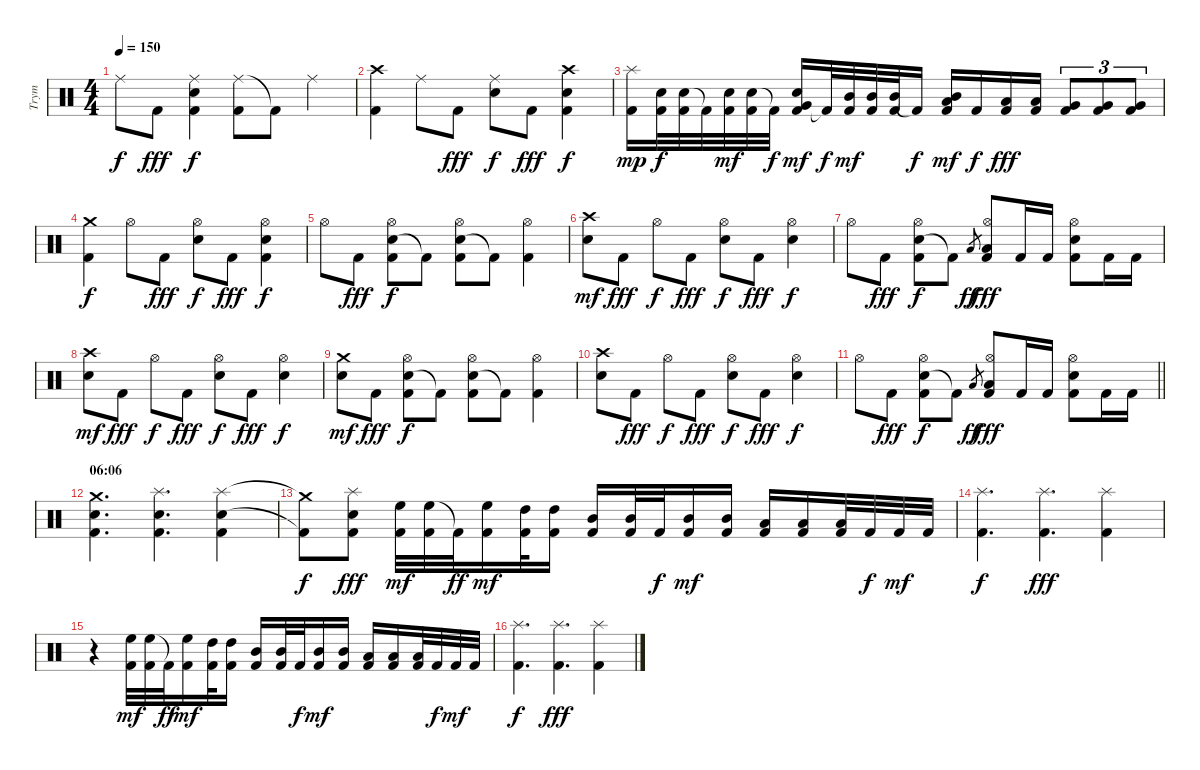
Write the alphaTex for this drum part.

\track ("Trym" "Trym") {instrument percussion}
\staff {score}
\articulation defaults
\ts (4 4)
\tempo 150
\clef neutral
\ks c "Ride (middle)".8{dy f} "Kick (hit) 2".8{dy fff}
("Snare (hit) 2" "Ride (middle)" "Kick (hit) 2").4{dy f} ("Ride (middle)" "Kick (hit) 2").8 "Kick (hit) 2"{t}.8 "Ride (middle)".4 |
("Crash high (hit)" "Kick (hit) 2").4 "Ride (middle)".8 "Kick (hit) 2".8{dy fff} ("Snare (hit) 2" "Ride (middle)").8{dy f} "Kick (hit) 2".8{dy fff} ("Snare (hit) 2" "Crash high (hit)" "Kick (hit) 2").4{dy f} |
("Splash (hit)" "Kick (hit) 2").16{dy mp} ("Snare (hit) 2" "Kick (hit) 2").32{dy f} ("Snare (hit) 2" "Kick (hit) 2").32 "Kick (hit) 2"{t}.32 ("Snare (hit) 2" "Kick (hit) 2").32{dy mf} ("Snare (hit) 2" "Kick (hit) 2").32 "Kick (hit) 2"{t}.32{dy f} ("Very Low Tom (hit)" "Snare (hit) 2" "Kick (hit) 2").16{dy mf} "Kick (hit) 2"{t}.32{dy f} ("Mid Tom (hit)" "Kick (hit) 2").32{dy mf} ("Mid Tom (hit)" "Kick (hit) 2").32 ("Mid Tom (hit)" "Kick (hit) 2").32 "Kick (hit) 2"{t}.16{dy f} ("Low Floor Tom (hit)" "Mid Tom (hit)" "Kick (hit) 2").16{dy mf} "Kick (hit) 2".16{dy f} ("Low Floor Tom (hit)" "Kick (hit) 2").16{dy fff} ("Low Floor Tom (hit)" "Kick (hit) 2").16 ("Very Low Tom (hit)" "Kick (hit) 2").8{tu (3 2)} ("Very Low Tom (hit)" "Kick (hit) 2").8{tu (3 2)} ("Very Low Tom (hit)" "Kick (hit) 2").8{tu (3 2)} |
("Crash medium (hit)" "Kick (hit) 2").4{dy f} "Hi-Hat (open)".8 "Kick (hit) 2".8{dy fff} ("Snare (hit) 2" "Hi-Hat (open)").8{dy f} "Kick (hit) 2".8{dy fff} ("Snare (hit) 2" "Hi-Hat (open)" "Kick (hit) 2").4{dy f} |
"Hi-Hat (open)".8 "Kick (hit) 2".8{dy fff} ("Snare (hit) 2" "Hi-Hat (open)" "Kick (hit) 2").8{dy f} "Kick (hit) 2"{t}.8 ("Snare (hit) 2" "Hi-Hat (open)" "Kick (hit) 2").8 "Kick (hit) 2"{t}.8 ("Hi-Hat (open)" "Kick (hit) 2").4 |
("Crash high (hit)" "Snare (hit) 2").8{dy mf} "Kick (hit) 2".8{dy fff} "Hi-Hat (open)".8{dy f} "Kick (hit) 2".8{dy fff} ("Snare (hit) 2" "Hi-Hat (open)").8{dy f} "Kick (hit) 2".8{dy fff} ("Snare (hit) 2" "Hi-Hat (open)").4{dy f} |
"Hi-Hat (open)".8 "Kick (hit) 2".8{dy fff} ("Snare (hit) 2" "Hi-Hat (open)" "Kick (hit) 2").8{dy f} "Kick (hit) 2"{t}.8 "Low Tom (hit)".8{gr dy ff} ("Low Tom (hit)" "Hi-Hat (open)" "Kick (hit) 2").8{dy fff} "Kick (hit) 2".16 "Kick (hit) 2".16 ("Snare (hit) 2" "Hi-Hat (open)" "Kick (hit) 2").8 "Kick (hit) 2".16 "Kick (hit) 2".16 |
("Crash high (hit)" "Snare (hit) 2").8{dy mf} "Kick (hit) 2".8{dy fff} "Hi-Hat (open)".8{dy f} "Kick (hit) 2".8{dy fff} ("Snare (hit) 2" "Hi-Hat (open)").8{dy f} "Kick (hit) 2".8{dy fff} ("Snare (hit) 2" "Hi-Hat (open)").4{dy f} |
("Crash medium (hit)" "Snare (hit) 2").8{dy mf} "Kick (hit) 2".8{dy fff} ("Snare (hit) 2" "Hi-Hat (open)" "Kick (hit) 2").8{dy f} "Kick (hit) 2"{t}.8 ("Snare (hit) 2" "Hi-Hat (open)" "Kick (hit) 2").8 "Kick (hit) 2"{t}.8 ("Hi-Hat (open)" "Kick (hit) 2").4 |
("Crash high (hit)" "Snare (hit) 2").8 "Kick (hit) 2".8{dy fff} "Hi-Hat (open)".8{dy f} "Kick (hit) 2".8{dy fff} ("Snare (hit) 2" "Hi-Hat (open)").8{dy f} "Kick (hit) 2".8{dy fff} ("Snare (hit) 2" "Hi-Hat (open)").4{dy f} |
\barLineRight lightlight "Hi-Hat (open)".8 "Kick (hit) 2".8{dy fff}
("Snare (hit) 2" "Hi-Hat (open)" "Kick (hit) 2").8{dy f} "Kick (hit) 2"{t}.8 "Low Tom (hit)".8{gr dy ff} ("Low Tom (hit)" "Hi-Hat (open)" "Kick (hit) 2").8{dy fff} "Kick (hit) 2".16 "Kick (hit) 2".16 ("Snare (hit) 2" "Hi-Hat (open)" "Kick (hit) 2").8 "Kick (hit) 2".16 "Kick (hit) 2".16 |
\section ("" "06:06")
("Crash medium (hit)" "Snare (hit) 2" "Kick (hit) 2").4{d} ("Splash (hit)" "Snare (hit) 2" "Kick (hit) 2").4{d} ("Splash (hit)" "Snare (hit) 2" "Kick (hit) 2").4 |
("Crash medium (hit)"{t} "Kick (hit) 2"{t}).8{dy f} ("Splash (hit)" "Snare (hit) 2" "Kick (hit) 2").8{dy fff} ("High Floor Tom (hit)" "Kick (hit) 2").32{dy mf} ("High Floor Tom (hit)" "Kick (hit) 2").32 "Kick (hit) 2"{t}.32{dy ff} ("High Floor Tom (hit)" "Kick (hit) 2").16{dy mf} ("High Tom (hit)" "Kick (hit) 2").32 ("High Tom (hit)" "Kick (hit) 2").16 ("Mid Tom (hit)" "Kick (hit) 2").16 ("Mid Tom (hit)" "Kick (hit) 2").32 "Kick (hit) 2".32{dy f} ("Mid Tom (hit)" "Kick (hit) 2").16{dy mf} ("Mid Tom (hit)" "Kick (hit) 2").16 ("Low Tom (hit)" "Kick (hit) 2").16 ("Low Tom (hit)" "Kick (hit) 2").16 ("Low Tom (hit)" "Kick (hit) 2").32 "Kick (hit) 2".32{dy f} "Kick (hit) 2".32{dy mf} "Kick (hit) 2".32 |
("Splash (hit)" "Kick (hit) 2").4{d dy f} ("Splash (hit)" "Kick (hit) 2").4{d dy fff} ("Splash (hit)" "Kick (hit) 2").4 |
r.4 ("High Floor Tom (hit)" "Kick (hit) 2").32{dy mf} ("High Floor Tom (hit)" "Kick (hit) 2").32 "Kick (hit) 2"{t}.32{dy ff} ("High Floor Tom (hit)" "Kick (hit) 2").16{dy mf} ("High Tom (hit)" "Kick (hit) 2").32 ("High Tom (hit)" "Kick (hit) 2").16 ("Mid Tom (hit)" "Kick (hit) 2").16 ("Mid Tom (hit)" "Kick (hit) 2").32 "Kick (hit) 2".32{dy f} ("Mid Tom (hit)" "Kick (hit) 2").16{dy mf} ("Mid Tom (hit)" "Kick (hit) 2").16 ("Low Tom (hit)" "Kick (hit) 2").16 ("Low Tom (hit)" "Kick (hit) 2").16 ("Low Tom (hit)" "Kick (hit) 2").32 "Kick (hit) 2".32{dy f} "Kick (hit) 2".32{dy mf} "Kick (hit) 2".32 |
("Splash (hit)" "Kick (hit) 2").4{d dy f} ("Splash (hit)" "Kick (hit) 2").4{d dy fff} ("Splash (hit)" "Kick (hit) 2").4
